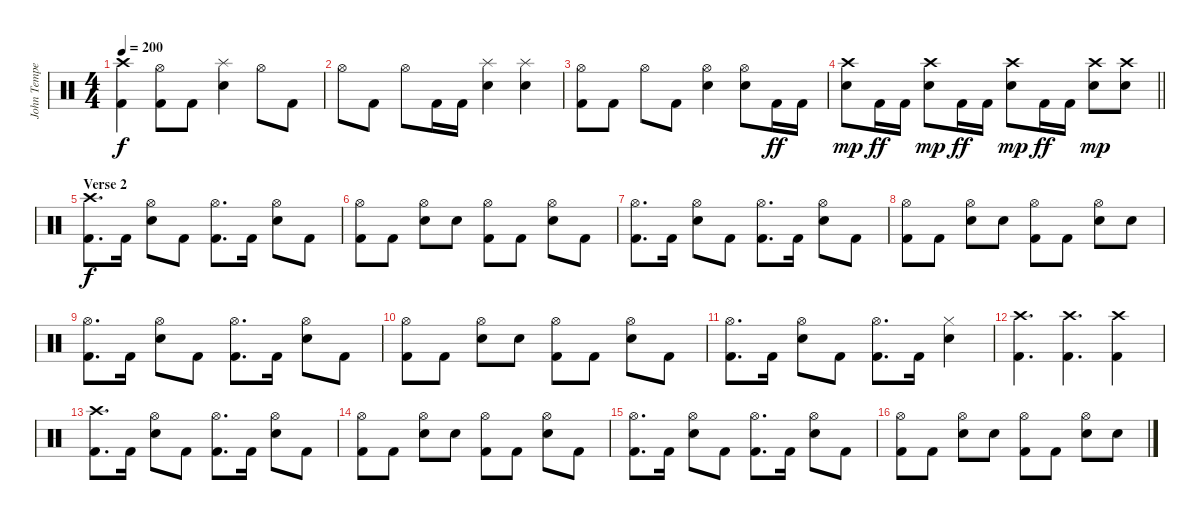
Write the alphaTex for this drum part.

\track ("John Tempesta" "John Tempe") {instrument percussion}
\staff {score}
\articulation defaults
\ts (4 4)
\tempo 200
\clef neutral
\ks c
("Crash high (hit)" "Kick (hit) 2").4{dy f} ("Hi-Hat (open)" "Kick (hit) 2").8 "Kick (hit) 2".8 ("Electric Snare (hit)" "Splash (hit)").4 "Hi-Hat (open)".8 "Kick (hit) 2".8 |
"Hi-Hat (open)".8 "Kick (hit) 2".8 "Hi-Hat (open)".8 "Kick (hit) 2".16 "Kick (hit) 2".16 ("Electric Snare (hit)" "Splash (hit)").4 ("Electric Snare (hit)" "Splash (hit)").4 |
("Hi-Hat (open)" "Kick (hit) 2").8 "Kick (hit) 2".8 "Hi-Hat (open)".8 "Kick (hit) 2".8 ("Electric Snare (hit)" "Hi-Hat (open)").4 ("Electric Snare (hit)" "Hi-Hat (open)").8 "Kick (hit) 2".16{dy ff} "Kick (hit) 2".16 |
\barLineRight lightlight
("Electric Snare (hit)" "Crash high (hit)").8{dy mp} "Kick (hit) 2".16{dy ff} "Kick (hit) 2".16 ("Electric Snare (hit)" "Crash high (hit)").8{dy mp} "Kick (hit) 2".16{dy ff} "Kick (hit) 2".16 ("Electric Snare (hit)" "Crash high (hit)").8{dy mp} "Kick (hit) 2".16{dy ff} "Kick (hit) 2".16 ("Electric Snare (hit)" "Crash high (hit)").8{dy mp} ("Electric Snare (hit)" "Crash high (hit)").8 |
\section ("" "Verse 2")
("Crash high (hit)" "Kick (hit) 2").8{d dy f} "Kick (hit) 2".16 ("Electric Snare (hit)" "Hi-Hat (open)").8 "Kick (hit) 2".8 ("Hi-Hat (open)" "Kick (hit) 2").8{d} "Kick (hit) 2".16 ("Electric Snare (hit)" "Hi-Hat (open)").8 "Kick (hit) 2".8 |
("Hi-Hat (open)" "Kick (hit) 2").8 "Kick (hit) 2".8 ("Electric Snare (hit)" "Hi-Hat (open)").8 "Electric Snare (hit)".8 ("Hi-Hat (open)" "Kick (hit) 2").8 "Kick (hit) 2".8 ("Electric Snare (hit)" "Hi-Hat (open)").8 "Kick (hit) 2".8 |
("Hi-Hat (open)" "Kick (hit) 2").8{d} "Kick (hit) 2".16 ("Electric Snare (hit)" "Hi-Hat (open)").8 "Kick (hit) 2".8 ("Hi-Hat (open)" "Kick (hit) 2").8{d} "Kick (hit) 2".16 ("Electric Snare (hit)" "Hi-Hat (open)").8 "Kick (hit) 2".8 |
("Hi-Hat (open)" "Kick (hit) 2").8 "Kick (hit) 2".8 ("Electric Snare (hit)" "Hi-Hat (open)").8 "Electric Snare (hit)".8 ("Hi-Hat (open)" "Kick (hit) 2").8 "Kick (hit) 2".8 ("Electric Snare (hit)" "Hi-Hat (open)").8 "Electric Snare (hit)".8 |
("Hi-Hat (open)" "Kick (hit) 2").8{d} "Kick (hit) 2".16 ("Electric Snare (hit)" "Hi-Hat (open)").8 "Kick (hit) 2".8 ("Hi-Hat (open)" "Kick (hit) 2").8{d} "Kick (hit) 2".16 ("Electric Snare (hit)" "Hi-Hat (open)").8 "Kick (hit) 2".8 |
("Hi-Hat (open)" "Kick (hit) 2").8 "Kick (hit) 2".8 ("Electric Snare (hit)" "Hi-Hat (open)").8 "Electric Snare (hit)".8 ("Hi-Hat (open)" "Kick (hit) 2").8 "Kick (hit) 2".8 ("Electric Snare (hit)" "Hi-Hat (open)").8 "Kick (hit) 2".8 |
("Hi-Hat (open)" "Kick (hit) 2").8{d} "Kick (hit) 2".16 ("Electric Snare (hit)" "Hi-Hat (open)").8 "Kick (hit) 2".8 ("Hi-Hat (open)" "Kick (hit) 2").8{d} "Kick (hit) 2".16 ("Electric Snare (hit)" "Hi-Hat (closed)").4 |
("Crash high (hit)" "Kick (hit) 2").4{d} ("Crash high (hit)" "Kick (hit) 2").4{d} ("Crash high (hit)" "Kick (hit) 2").4 |
("Crash high (hit)" "Kick (hit) 2").8{d} "Kick (hit) 2".16 ("Electric Snare (hit)" "Hi-Hat (open)").8 "Kick (hit) 2".8 ("Hi-Hat (open)" "Kick (hit) 2").8{d} "Kick (hit) 2".16 ("Electric Snare (hit)" "Hi-Hat (open)").8 "Kick (hit) 2".8 |
("Hi-Hat (open)" "Kick (hit) 2").8 "Kick (hit) 2".8 ("Electric Snare (hit)" "Hi-Hat (open)").8 "Electric Snare (hit)".8 ("Hi-Hat (open)" "Kick (hit) 2").8 "Kick (hit) 2".8 ("Electric Snare (hit)" "Hi-Hat (open)").8 "Kick (hit) 2".8 |
("Hi-Hat (open)" "Kick (hit) 2").8{d} "Kick (hit) 2".16 ("Electric Snare (hit)" "Hi-Hat (open)").8 "Kick (hit) 2".8 ("Hi-Hat (open)" "Kick (hit) 2").8{d} "Kick (hit) 2".16 ("Electric Snare (hit)" "Hi-Hat (open)").8 "Kick (hit) 2".8 |
("Hi-Hat (open)" "Kick (hit) 2").8 "Kick (hit) 2".8 ("Electric Snare (hit)" "Hi-Hat (open)").8 "Electric Snare (hit)".8 ("Hi-Hat (open)" "Kick (hit) 2").8 "Kick (hit) 2".8 ("Electric Snare (hit)" "Hi-Hat (open)").8 "Electric Snare (hit)".8
